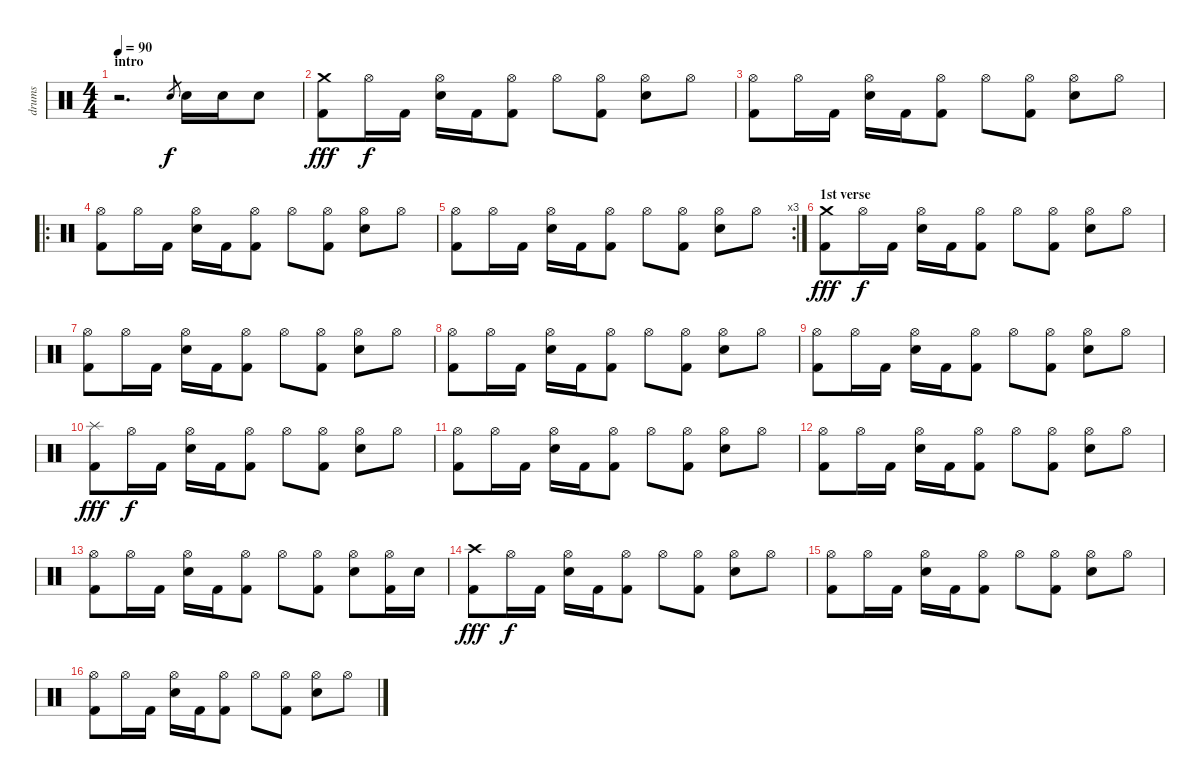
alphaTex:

\track ("drums" "drums") {instrument percussion}
\staff {score}
\articulation defaults
\ts (4 4)
\section ("" "intro")
\tempo 90
\clef neutral
\ks c
r.2{d dy f} "Electric Snare (hit)".8{gr} "Electric Snare (hit)".16 "Electric Snare (hit)".16 "Electric Snare (hit)".8 |
("Crash medium (hit)" "Kick (hit) 2").8{dy fff} "Hi-Hat (open)".16{dy f} "Kick (hit) 2".16 ("Hi-Hat (open)" "Electric Snare (hit)").16 "Kick (hit) 2".16 ("Hi-Hat (open)" "Kick (hit) 2").8 "Hi-Hat (open)".8 ("Hi-Hat (open)" "Kick (hit) 2").8 ("Hi-Hat (open)" "Electric Snare (hit)").8 "Hi-Hat (open)".8 |
("Hi-Hat (open)" "Kick (hit) 2").8 "Hi-Hat (open)".16 "Kick (hit) 2".16 ("Hi-Hat (open)" "Electric Snare (hit)").16 "Kick (hit) 2".16 ("Hi-Hat (open)" "Kick (hit) 2").8 "Hi-Hat (open)".8 ("Hi-Hat (open)" "Kick (hit) 2").8 ("Hi-Hat (open)" "Electric Snare (hit)").8 "Hi-Hat (open)".8 |
\ro
("Hi-Hat (open)" "Kick (hit) 2").8 "Hi-Hat (open)".16 "Kick (hit) 2".16 ("Hi-Hat (open)" "Electric Snare (hit)").16 "Kick (hit) 2".16 ("Hi-Hat (open)" "Kick (hit) 2").8 "Hi-Hat (open)".8 ("Hi-Hat (open)" "Kick (hit) 2").8 ("Hi-Hat (open)" "Electric Snare (hit)").8 "Hi-Hat (open)".8 |
\rc 3
("Hi-Hat (open)" "Kick (hit) 2").8 "Hi-Hat (open)".16 "Kick (hit) 2".16 ("Hi-Hat (open)" "Electric Snare (hit)").16 "Kick (hit) 2".16 ("Hi-Hat (open)" "Kick (hit) 2").8 "Hi-Hat (open)".8 ("Hi-Hat (open)" "Kick (hit) 2").8 ("Hi-Hat (open)" "Electric Snare (hit)").8 "Hi-Hat (open)".8 |
\section ("" "1st verse")
("Crash medium (hit)" "Kick (hit) 2").8{dy fff} "Hi-Hat (open)".16{dy f} "Kick (hit) 2".16 ("Hi-Hat (open)" "Electric Snare (hit)").16 "Kick (hit) 2".16 ("Hi-Hat (open)" "Kick (hit) 2").8 "Hi-Hat (open)".8 ("Hi-Hat (open)" "Kick (hit) 2").8 ("Hi-Hat (open)" "Electric Snare (hit)").8 "Hi-Hat (open)".8 |
("Hi-Hat (open)" "Kick (hit) 2").8 "Hi-Hat (open)".16 "Kick (hit) 2".16 ("Hi-Hat (open)" "Electric Snare (hit)").16 "Kick (hit) 2".16 ("Hi-Hat (open)" "Kick (hit) 2").8 "Hi-Hat (open)".8 ("Hi-Hat (open)" "Kick (hit) 2").8 ("Hi-Hat (open)" "Electric Snare (hit)").8 "Hi-Hat (open)".8 |
("Hi-Hat (open)" "Kick (hit) 2").8 "Hi-Hat (open)".16 "Kick (hit) 2".16 ("Hi-Hat (open)" "Electric Snare (hit)").16 "Kick (hit) 2".16 ("Hi-Hat (open)" "Kick (hit) 2").8 "Hi-Hat (open)".8 ("Hi-Hat (open)" "Kick (hit) 2").8 ("Hi-Hat (open)" "Electric Snare (hit)").8 "Hi-Hat (open)".8 |
("Hi-Hat (open)" "Kick (hit) 2").8 "Hi-Hat (open)".16 "Kick (hit) 2".16 ("Hi-Hat (open)" "Electric Snare (hit)").16 "Kick (hit) 2".16 ("Hi-Hat (open)" "Kick (hit) 2").8 "Hi-Hat (open)".8 ("Hi-Hat (open)" "Kick (hit) 2").8 ("Hi-Hat (open)" "Electric Snare (hit)").8 "Hi-Hat (open)".8 |
("Splash (hit)" "Kick (hit) 2").8{dy fff} "Hi-Hat (open)".16{dy f} "Kick (hit) 2".16 ("Hi-Hat (open)" "Electric Snare (hit)").16 "Kick (hit) 2".16 ("Hi-Hat (open)" "Kick (hit) 2").8 "Hi-Hat (open)".8 ("Hi-Hat (open)" "Kick (hit) 2").8 ("Hi-Hat (open)" "Electric Snare (hit)").8 "Hi-Hat (open)".8 |
("Hi-Hat (open)" "Kick (hit) 2").8 "Hi-Hat (open)".16 "Kick (hit) 2".16 ("Hi-Hat (open)" "Electric Snare (hit)").16 "Kick (hit) 2".16 ("Hi-Hat (open)" "Kick (hit) 2").8 "Hi-Hat (open)".8 ("Hi-Hat (open)" "Kick (hit) 2").8 ("Hi-Hat (open)" "Electric Snare (hit)").8 "Hi-Hat (open)".8 |
("Hi-Hat (open)" "Kick (hit) 2").8 "Hi-Hat (open)".16 "Kick (hit) 2".16 ("Hi-Hat (open)" "Electric Snare (hit)").16 "Kick (hit) 2".16 ("Hi-Hat (open)" "Kick (hit) 2").8 "Hi-Hat (open)".8 ("Hi-Hat (open)" "Kick (hit) 2").8 ("Hi-Hat (open)" "Electric Snare (hit)").8 "Hi-Hat (open)".8 |
("Hi-Hat (open)" "Kick (hit) 2").8 "Hi-Hat (open)".16 "Kick (hit) 2".16 ("Hi-Hat (open)" "Electric Snare (hit)").16 "Kick (hit) 2".16 ("Hi-Hat (open)" "Kick (hit) 2").8 "Hi-Hat (open)".8 ("Hi-Hat (open)" "Kick (hit) 2").8 ("Hi-Hat (open)" "Electric Snare (hit)").8 ("Hi-Hat (open)" "Kick (hit) 2").16 "Electric Snare (hit)".16 |
("Crash high (hit)" "Kick (hit) 2").8{dy fff} "Hi-Hat (open)".16{dy f} "Kick (hit) 2".16 ("Hi-Hat (open)" "Electric Snare (hit)").16 "Kick (hit) 2".16 ("Hi-Hat (open)" "Kick (hit) 2").8 "Hi-Hat (open)".8 ("Hi-Hat (open)" "Kick (hit) 2").8 ("Hi-Hat (open)" "Electric Snare (hit)").8 "Hi-Hat (open)".8 |
("Hi-Hat (open)" "Kick (hit) 2").8 "Hi-Hat (open)".16 "Kick (hit) 2".16 ("Hi-Hat (open)" "Electric Snare (hit)").16 "Kick (hit) 2".16 ("Hi-Hat (open)" "Kick (hit) 2").8 "Hi-Hat (open)".8 ("Hi-Hat (open)" "Kick (hit) 2").8 ("Hi-Hat (open)" "Electric Snare (hit)").8 "Hi-Hat (open)".8 |
("Hi-Hat (open)" "Kick (hit) 2").8 "Hi-Hat (open)".16 "Kick (hit) 2".16 ("Hi-Hat (open)" "Electric Snare (hit)").16 "Kick (hit) 2".16 ("Hi-Hat (open)" "Kick (hit) 2").8 "Hi-Hat (open)".8 ("Hi-Hat (open)" "Kick (hit) 2").8 ("Hi-Hat (open)" "Electric Snare (hit)").8 "Hi-Hat (open)".8
